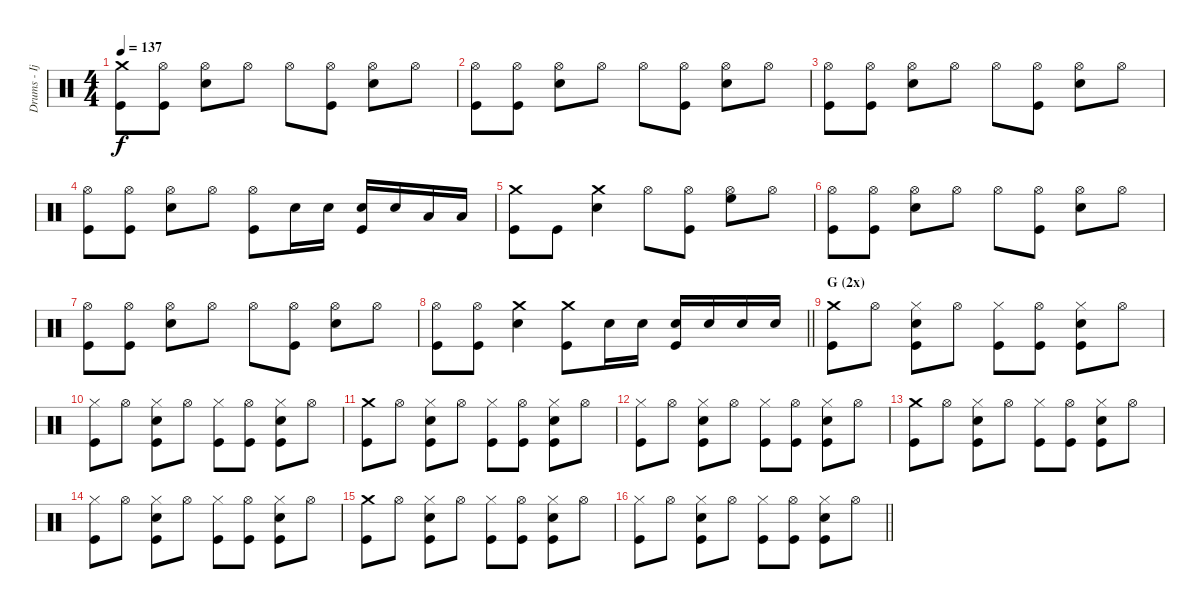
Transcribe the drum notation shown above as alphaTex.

\track ("Drums - Ijichi" "Drums - Ij") {instrument percussion}
\staff {score}
\articulation defaults
\ts (4 4)
\tempo 137
\clef neutral
\ks c
("Crash medium (hit)" "Kick (hit)").8{dy f} ("Hi-Hat (open)" "Kick (hit)").8 ("Hi-Hat (open)" "Electric Snare (hit)").8 "Hi-Hat (open)".8 "Hi-Hat (open)".8 ("Hi-Hat (open)" "Kick (hit)").8 ("Hi-Hat (open)" "Electric Snare (hit)").8 "Hi-Hat (open)".8 |
("Hi-Hat (open)" "Kick (hit)").8 ("Hi-Hat (open)" "Kick (hit)").8 ("Hi-Hat (open)" "Electric Snare (hit)").8 "Hi-Hat (open)".8 "Hi-Hat (open)".8 ("Hi-Hat (open)" "Kick (hit)").8 ("Hi-Hat (open)" "Electric Snare (hit)").8 "Hi-Hat (open)".8 |
("Hi-Hat (open)" "Kick (hit)").8 ("Hi-Hat (open)" "Kick (hit)").8 ("Hi-Hat (open)" "Electric Snare (hit)").8 "Hi-Hat (open)".8 "Hi-Hat (open)".8 ("Hi-Hat (open)" "Kick (hit)").8 ("Hi-Hat (open)" "Electric Snare (hit)").8 "Hi-Hat (open)".8 |
("Hi-Hat (open)" "Kick (hit)").8 ("Hi-Hat (open)" "Kick (hit)").8 ("Hi-Hat (open)" "Electric Snare (hit)").8 "Hi-Hat (open)".8 ("Hi-Hat (open)" "Kick (hit)").8 "Electric Snare (hit)".16 "Electric Snare (hit)".16 ("Electric Snare (hit)" "Kick (hit)").16 "Electric Snare (hit)".16 "Low Tom (hit)".16 "Low Tom (hit)".16 |
("Crash medium (hit)" "Kick (hit)").8 "Kick (hit)".8 ("Crash medium (hit)" "Electric Snare (hit)").4 "Hi-Hat (open)".8 ("Hi-Hat (open)" "Kick (hit)").8 ("Hi-Hat (open)" "High Floor Tom (hit)").8 "Hi-Hat (open)".8 |
("Hi-Hat (open)" "Kick (hit)").8 ("Hi-Hat (open)" "Kick (hit)").8 ("Hi-Hat (open)" "Electric Snare (hit)").8 "Hi-Hat (open)".8 "Hi-Hat (open)".8 ("Hi-Hat (open)" "Kick (hit)").8 ("Hi-Hat (open)" "Electric Snare (hit)").8 "Hi-Hat (open)".8 |
("Hi-Hat (open)" "Kick (hit)").8 ("Hi-Hat (open)" "Kick (hit)").8 ("Hi-Hat (open)" "Electric Snare (hit)").8 "Hi-Hat (open)".8 "Hi-Hat (open)".8 ("Hi-Hat (open)" "Kick (hit)").8 ("Hi-Hat (open)" "Electric Snare (hit)").8 "Hi-Hat (open)".8 |
\barLineRight lightlight
("Hi-Hat (open)" "Kick (hit)").8 ("Hi-Hat (open)" "Kick (hit)").8 ("Crash medium (hit)" "Electric Snare (hit)").4 ("Crash medium (hit)" "Kick (hit)").8 "Electric Snare (hit)".16 "Electric Snare (hit)".16 ("Electric Snare (hit)" "Kick (hit)").16 "Electric Snare (hit)".16 "Electric Snare (hit)".16 "Electric Snare (hit)".16 |
\section ("" "G (2x)")
("Crash medium (hit)" "Kick (hit)").8 "Hi-Hat (open)".8 ("Hi-Hat (closed)" "Electric Snare (hit)" "Kick (hit)").8 "Hi-Hat (open)".8 ("Hi-Hat (closed)" "Kick (hit)").8 ("Hi-Hat (open)" "Kick (hit)").8 ("Hi-Hat (closed)" "Electric Snare (hit)" "Kick (hit)").8 "Hi-Hat (open)".8 |
("Hi-Hat (closed)" "Kick (hit)").8 "Hi-Hat (open)".8 ("Hi-Hat (closed)" "Electric Snare (hit)" "Kick (hit)").8 "Hi-Hat (open)".8 ("Hi-Hat (closed)" "Kick (hit)").8 ("Hi-Hat (open)" "Kick (hit)").8 ("Hi-Hat (closed)" "Electric Snare (hit)" "Kick (hit)").8 "Hi-Hat (open)".8 |
("Crash medium (hit)" "Kick (hit)").8 "Hi-Hat (open)".8 ("Hi-Hat (closed)" "Electric Snare (hit)" "Kick (hit)").8 "Hi-Hat (open)".8 ("Hi-Hat (closed)" "Kick (hit)").8 ("Hi-Hat (open)" "Kick (hit)").8 ("Hi-Hat (closed)" "Electric Snare (hit)" "Kick (hit)").8 "Hi-Hat (open)".8 |
("Hi-Hat (closed)" "Kick (hit)").8 "Hi-Hat (open)".8 ("Hi-Hat (closed)" "Electric Snare (hit)" "Kick (hit)").8 "Hi-Hat (open)".8 ("Hi-Hat (closed)" "Kick (hit)").8 ("Hi-Hat (open)" "Kick (hit)").8 ("Hi-Hat (closed)" "Electric Snare (hit)" "Kick (hit)").8 "Hi-Hat (open)".8 |
("Crash medium (hit)" "Kick (hit)").8 "Hi-Hat (open)".8 ("Hi-Hat (closed)" "Electric Snare (hit)" "Kick (hit)").8 "Hi-Hat (open)".8 ("Hi-Hat (closed)" "Kick (hit)").8 ("Hi-Hat (open)" "Kick (hit)").8 ("Hi-Hat (closed)" "Electric Snare (hit)" "Kick (hit)").8 "Hi-Hat (open)".8 |
("Hi-Hat (closed)" "Kick (hit)").8 "Hi-Hat (open)".8 ("Hi-Hat (closed)" "Electric Snare (hit)" "Kick (hit)").8 "Hi-Hat (open)".8 ("Hi-Hat (closed)" "Kick (hit)").8 ("Hi-Hat (open)" "Kick (hit)").8 ("Hi-Hat (closed)" "Electric Snare (hit)" "Kick (hit)").8 "Hi-Hat (open)".8 |
("Crash medium (hit)" "Kick (hit)").8 "Hi-Hat (open)".8 ("Hi-Hat (closed)" "Electric Snare (hit)" "Kick (hit)").8 "Hi-Hat (open)".8 ("Hi-Hat (closed)" "Kick (hit)").8 ("Hi-Hat (open)" "Kick (hit)").8 ("Hi-Hat (closed)" "Electric Snare (hit)" "Kick (hit)").8 "Hi-Hat (open)".8 |
\barLineRight lightlight
("Hi-Hat (closed)" "Kick (hit)").8 "Hi-Hat (open)".8 ("Hi-Hat (closed)" "Electric Snare (hit)" "Kick (hit)").8 "Hi-Hat (open)".8 ("Hi-Hat (closed)" "Kick (hit)").8 ("Hi-Hat (open)" "Kick (hit)").8 ("Hi-Hat (closed)" "Electric Snare (hit)" "Kick (hit)").8 "Hi-Hat (open)".8
